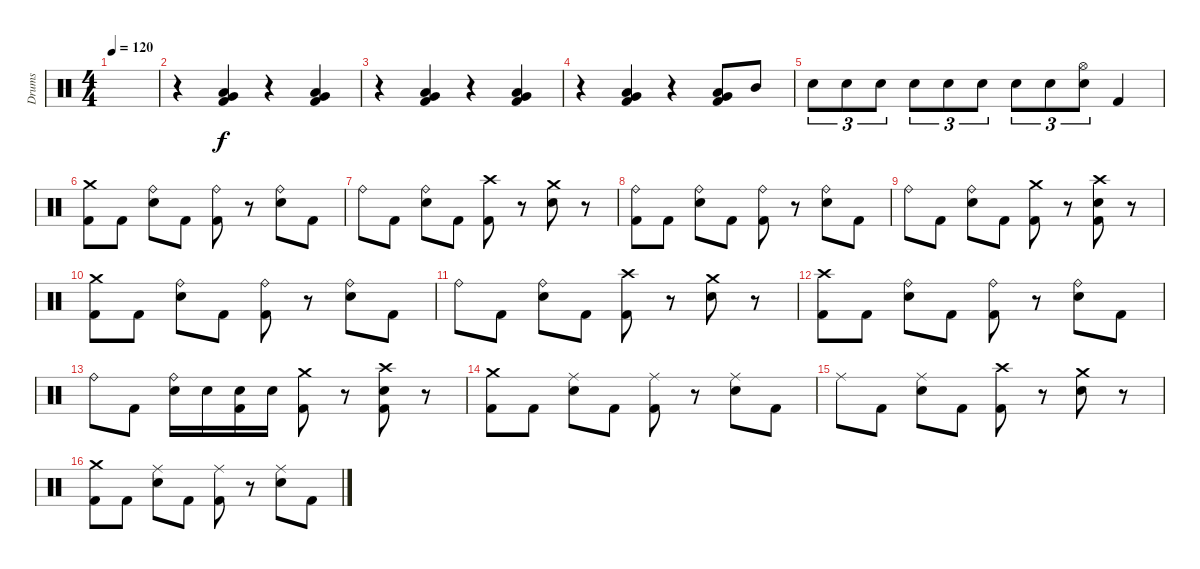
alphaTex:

\track ("Drums" "Drums") {instrument percussion}
\staff {score}
\articulation defaults
\ts (4 4)
\tempo 120
\clef neutral
\ks c
|
r.4 ("Low Tom (hit)" "Very Low Tom (hit)" "Kick (hit) 2").4 r.4 ("Low Tom (hit)" "Very Low Tom (hit)" "Kick (hit) 2").4 |
r.4 ("Low Tom (hit)" "Very Low Tom (hit)" "Kick (hit) 2").4 r.4 ("Low Tom (hit)" "Very Low Tom (hit)" "Kick (hit) 2").4 |
r.4 ("Low Tom (hit)" "Very Low Tom (hit)" "Kick (hit) 2").4 r.4 ("Low Tom (hit)" "Very Low Tom (hit)" "Kick (hit) 2").8 "Mid Tom (hit)".8 |
"Electric Snare (hit)".8{tu (3 2)} "Electric Snare (hit)".8{tu (3 2)} "Electric Snare (hit)".8{tu (3 2)} "Electric Snare (hit)".8{tu (3 2)} "Electric Snare (hit)".8{tu (3 2)} "Electric Snare (hit)".8{tu (3 2)} "Electric Snare (hit)".8{tu (3 2)} "Electric Snare (hit)".8{tu (3 2)} ("Hi-Hat (open)" "Electric Snare (hit)").8{tu (3 2)} "Kick (hit) 2".4 |
("Crash medium (hit)" "Kick (hit) 2").8 "Kick (hit) 2".8 ("Ride (bell)" "Electric Snare (hit)").8 "Kick (hit) 2".8 ("Ride (bell)" "Kick (hit) 2").8 r.8 ("Ride (bell)" "Electric Snare (hit)").8 "Kick (hit) 2".8 |
"Ride (bell)".8 "Kick (hit) 2".8 ("Ride (bell)" "Electric Snare (hit)").8 "Kick (hit) 2".8 ("Crash high (hit)" "Kick (hit) 2").8 r.8 ("Crash medium (hit)" "Electric Snare (hit)").8 r.8 |
("Ride (bell)" "Kick (hit) 2").8 "Kick (hit) 2".8 ("Ride (bell)" "Electric Snare (hit)").8 "Kick (hit) 2".8 ("Ride (bell)" "Kick (hit) 2").8 r.8 ("Ride (bell)" "Electric Snare (hit)").8 "Kick (hit) 2".8 |
"Ride (bell)".8 "Kick (hit) 2".8 ("Ride (bell)" "Electric Snare (hit)").8 "Kick (hit) 2".8 ("Crash medium (hit)" "Kick (hit) 2").8 r.8 ("Crash high (hit)" "Electric Snare (hit)" "Kick (hit) 2").8 r.8 |
("Crash medium (hit)" "Kick (hit) 2").8 "Kick (hit) 2".8 ("Ride (bell)" "Electric Snare (hit)").8 "Kick (hit) 2".8 ("Ride (bell)" "Kick (hit) 2").8 r.8 ("Ride (bell)" "Electric Snare (hit)").8 "Kick (hit) 2".8 |
"Ride (bell)".8 "Kick (hit) 2".8 ("Ride (bell)" "Electric Snare (hit)").8 "Kick (hit) 2".8 ("Crash high (hit)" "Kick (hit) 2").8 r.8 ("Crash medium (hit)" "Electric Snare (hit)").8 r.8 |
("Crash high (hit)" "Kick (hit) 2").8 "Kick (hit) 2".8 ("Ride (bell)" "Electric Snare (hit)").8 "Kick (hit) 2".8 ("Ride (bell)" "Kick (hit) 2").8 r.8 ("Ride (bell)" "Electric Snare (hit)").8 "Kick (hit) 2".8 |
"Ride (bell)".8 "Kick (hit) 2".8 ("Ride (bell)" "Electric Snare (hit)").16 "Electric Snare (hit)".16 ("Electric Snare (hit)" "Kick (hit) 2").16 "Electric Snare (hit)".16 ("Crash medium (hit)" "Kick (hit) 2").8 r.8 ("Crash high (hit)" "Electric Snare (hit)" "Kick (hit) 2").8 r.8 |
("Crash medium (hit)" "Kick (hit) 2").8 "Kick (hit) 2".8 ("Ride (middle)" "Electric Snare (hit)").8 "Kick (hit) 2".8 ("Ride (middle)" "Kick (hit) 2").8 r.8 ("Ride (middle)" "Electric Snare (hit)").8 "Kick (hit) 2".8 |
"Ride (middle)".8 "Kick (hit) 2".8 ("Ride (middle)" "Electric Snare (hit)").8 "Kick (hit) 2".8 ("Crash high (hit)" "Kick (hit) 2").8 r.8 ("Crash medium (hit)" "Electric Snare (hit)").8 r.8 |
("Crash medium (hit)" "Kick (hit) 2").8 "Kick (hit) 2".8 ("Ride (middle)" "Electric Snare (hit)").8 "Kick (hit) 2".8 ("Ride (middle)" "Kick (hit) 2").8 r.8 ("Ride (middle)" "Electric Snare (hit)").8 "Kick (hit) 2".8
